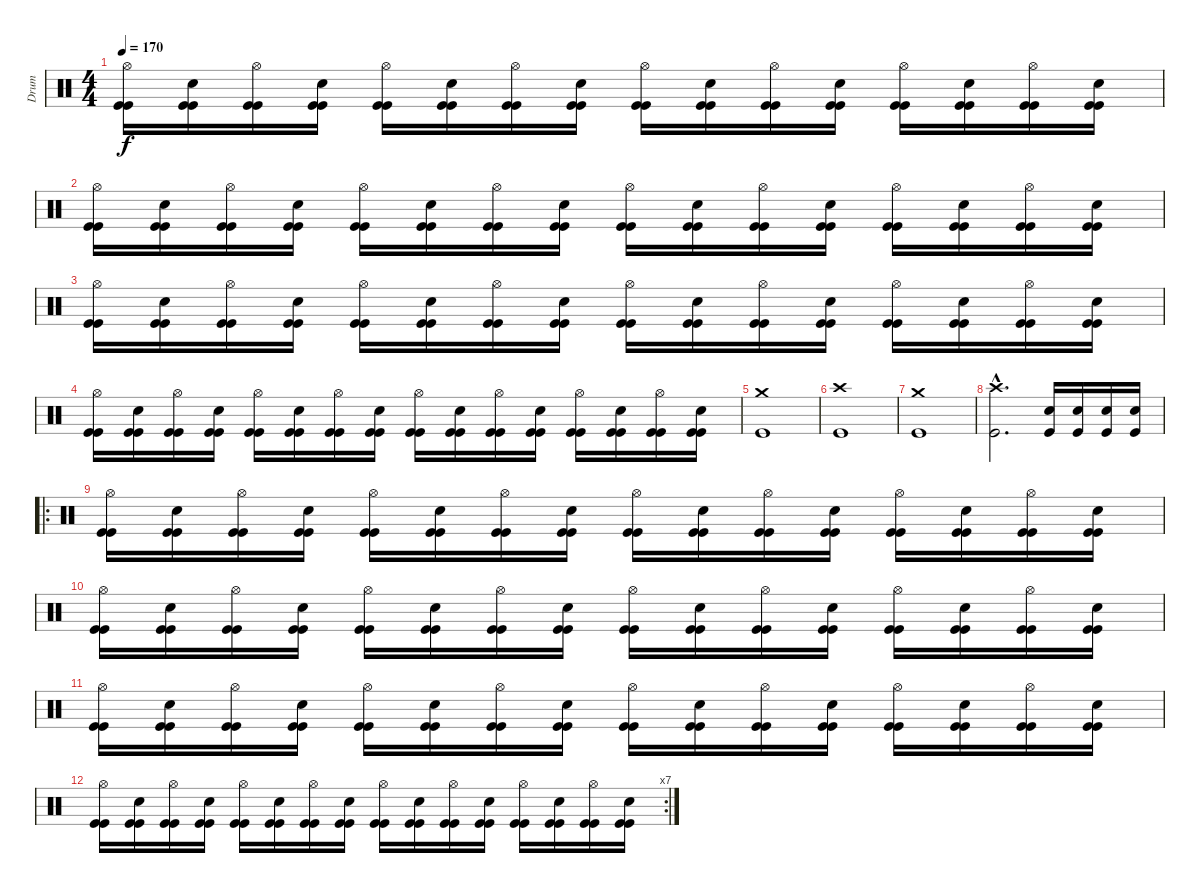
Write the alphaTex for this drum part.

\track ("Drum" "Drum") {instrument percussion}
\staff {score}
\articulation defaults
\ts (4 4)
\tempo 170
\clef neutral
\ks c
("Hi-Hat (open)" "Kick (hit)" "Kick (hit)").16{dy f} ("Snare (hit) 2" "Kick (hit)" "Kick (hit)").16 ("Hi-Hat (open)" "Kick (hit)" "Kick (hit)").16 ("Snare (hit) 2" "Kick (hit)" "Kick (hit)").16 ("Hi-Hat (open)" "Kick (hit)" "Kick (hit)").16 ("Snare (hit) 2" "Kick (hit)" "Kick (hit)").16 ("Hi-Hat (open)" "Kick (hit)" "Kick (hit)").16 ("Snare (hit) 2" "Kick (hit)" "Kick (hit)").16 ("Hi-Hat (open)" "Kick (hit)" "Kick (hit)").16 ("Snare (hit) 2" "Kick (hit)" "Kick (hit)").16 ("Hi-Hat (open)" "Kick (hit)" "Kick (hit)").16 ("Snare (hit) 2" "Kick (hit)" "Kick (hit)").16 ("Hi-Hat (open)" "Kick (hit)" "Kick (hit)").16 ("Snare (hit) 2" "Kick (hit)" "Kick (hit)").16 ("Hi-Hat (open)" "Kick (hit)" "Kick (hit)").16 ("Snare (hit) 2" "Kick (hit)" "Kick (hit)").16 |
("Hi-Hat (open)" "Kick (hit)" "Kick (hit)").16 ("Snare (hit) 2" "Kick (hit)" "Kick (hit)").16 ("Hi-Hat (open)" "Kick (hit)" "Kick (hit)").16 ("Snare (hit) 2" "Kick (hit)" "Kick (hit)").16 ("Hi-Hat (open)" "Kick (hit)" "Kick (hit)").16 ("Snare (hit) 2" "Kick (hit)" "Kick (hit)").16 ("Hi-Hat (open)" "Kick (hit)" "Kick (hit)").16 ("Snare (hit) 2" "Kick (hit)" "Kick (hit)").16 ("Hi-Hat (open)" "Kick (hit)" "Kick (hit)").16 ("Snare (hit) 2" "Kick (hit)" "Kick (hit)").16 ("Hi-Hat (open)" "Kick (hit)" "Kick (hit)").16 ("Snare (hit) 2" "Kick (hit)" "Kick (hit)").16 ("Hi-Hat (open)" "Kick (hit)" "Kick (hit)").16 ("Snare (hit) 2" "Kick (hit)" "Kick (hit)").16 ("Hi-Hat (open)" "Kick (hit)" "Kick (hit)").16 ("Snare (hit) 2" "Kick (hit)" "Kick (hit)").16 |
("Hi-Hat (open)" "Kick (hit)" "Kick (hit)").16 ("Snare (hit) 2" "Kick (hit)" "Kick (hit)").16 ("Hi-Hat (open)" "Kick (hit)" "Kick (hit)").16 ("Snare (hit) 2" "Kick (hit)" "Kick (hit)").16 ("Hi-Hat (open)" "Kick (hit)" "Kick (hit)").16 ("Snare (hit) 2" "Kick (hit)" "Kick (hit)").16 ("Hi-Hat (open)" "Kick (hit)" "Kick (hit)").16 ("Snare (hit) 2" "Kick (hit)" "Kick (hit)").16 ("Hi-Hat (open)" "Kick (hit)" "Kick (hit)").16 ("Snare (hit) 2" "Kick (hit)" "Kick (hit)").16 ("Hi-Hat (open)" "Kick (hit)" "Kick (hit)").16 ("Snare (hit) 2" "Kick (hit)" "Kick (hit)").16 ("Hi-Hat (open)" "Kick (hit)" "Kick (hit)").16 ("Snare (hit) 2" "Kick (hit)" "Kick (hit)").16 ("Hi-Hat (open)" "Kick (hit)" "Kick (hit)").16 ("Snare (hit) 2" "Kick (hit)" "Kick (hit)").16 |
("Hi-Hat (open)" "Kick (hit)" "Kick (hit)").16 ("Snare (hit) 2" "Kick (hit)" "Kick (hit)").16 ("Hi-Hat (open)" "Kick (hit)" "Kick (hit)").16 ("Snare (hit) 2" "Kick (hit)" "Kick (hit)").16 ("Hi-Hat (open)" "Kick (hit)" "Kick (hit)").16 ("Snare (hit) 2" "Kick (hit)" "Kick (hit)").16 ("Hi-Hat (open)" "Kick (hit)" "Kick (hit)").16 ("Snare (hit) 2" "Kick (hit)" "Kick (hit)").16 ("Hi-Hat (open)" "Kick (hit)" "Kick (hit)").16 ("Snare (hit) 2" "Kick (hit)" "Kick (hit)").16 ("Hi-Hat (open)" "Kick (hit)" "Kick (hit)").16 ("Snare (hit) 2" "Kick (hit)" "Kick (hit)").16 ("Hi-Hat (open)" "Kick (hit)" "Kick (hit)").16 ("Snare (hit) 2" "Kick (hit)" "Kick (hit)").16 ("Hi-Hat (open)" "Kick (hit)" "Kick (hit)").16 ("Snare (hit) 2" "Kick (hit)" "Kick (hit)").16 |
("Crash medium (hit)" "Kick (hit)").1 |
("Crash high (hit)" "Kick (hit)").1 |
("Crash medium (hit)" "Kick (hit)").1 |
("Crash high (hit)"{hac} "Kick (hit)"{hac}).2{d} ("Snare (hit) 2" "Kick (hit)").16 ("Snare (hit) 2" "Kick (hit)").16 ("Snare (hit) 2" "Kick (hit)").16 ("Snare (hit) 2" "Kick (hit)").16 |
\ro
("Hi-Hat (open)" "Kick (hit)" "Kick (hit)").16 ("Snare (hit) 2" "Kick (hit)" "Kick (hit)").16 ("Hi-Hat (open)" "Kick (hit)" "Kick (hit)").16 ("Snare (hit) 2" "Kick (hit)" "Kick (hit)").16 ("Hi-Hat (open)" "Kick (hit)" "Kick (hit)").16 ("Snare (hit) 2" "Kick (hit)" "Kick (hit)").16 ("Hi-Hat (open)" "Kick (hit)" "Kick (hit)").16 ("Snare (hit) 2" "Kick (hit)" "Kick (hit)").16 ("Hi-Hat (open)" "Kick (hit)" "Kick (hit)").16 ("Snare (hit) 2" "Kick (hit)" "Kick (hit)").16 ("Hi-Hat (open)" "Kick (hit)" "Kick (hit)").16 ("Snare (hit) 2" "Kick (hit)" "Kick (hit)").16 ("Hi-Hat (open)" "Kick (hit)" "Kick (hit)").16 ("Snare (hit) 2" "Kick (hit)" "Kick (hit)").16 ("Hi-Hat (open)" "Kick (hit)" "Kick (hit)").16 ("Snare (hit) 2" "Kick (hit)" "Kick (hit)").16 |
("Hi-Hat (open)" "Kick (hit)" "Kick (hit)").16 ("Snare (hit) 2" "Kick (hit)" "Kick (hit)").16 ("Hi-Hat (open)" "Kick (hit)" "Kick (hit)").16 ("Snare (hit) 2" "Kick (hit)" "Kick (hit)").16 ("Hi-Hat (open)" "Kick (hit)" "Kick (hit)").16 ("Snare (hit) 2" "Kick (hit)" "Kick (hit)").16 ("Hi-Hat (open)" "Kick (hit)" "Kick (hit)").16 ("Snare (hit) 2" "Kick (hit)" "Kick (hit)").16 ("Hi-Hat (open)" "Kick (hit)" "Kick (hit)").16 ("Snare (hit) 2" "Kick (hit)" "Kick (hit)").16 ("Hi-Hat (open)" "Kick (hit)" "Kick (hit)").16 ("Snare (hit) 2" "Kick (hit)" "Kick (hit)").16 ("Hi-Hat (open)" "Kick (hit)" "Kick (hit)").16 ("Snare (hit) 2" "Kick (hit)" "Kick (hit)").16 ("Hi-Hat (open)" "Kick (hit)" "Kick (hit)").16 ("Snare (hit) 2" "Kick (hit)" "Kick (hit)").16 |
("Hi-Hat (open)" "Kick (hit)" "Kick (hit)").16 ("Snare (hit) 2" "Kick (hit)" "Kick (hit)").16 ("Hi-Hat (open)" "Kick (hit)" "Kick (hit)").16 ("Snare (hit) 2" "Kick (hit)" "Kick (hit)").16 ("Hi-Hat (open)" "Kick (hit)" "Kick (hit)").16 ("Snare (hit) 2" "Kick (hit)" "Kick (hit)").16 ("Hi-Hat (open)" "Kick (hit)" "Kick (hit)").16 ("Snare (hit) 2" "Kick (hit)" "Kick (hit)").16 ("Hi-Hat (open)" "Kick (hit)" "Kick (hit)").16 ("Snare (hit) 2" "Kick (hit)" "Kick (hit)").16 ("Hi-Hat (open)" "Kick (hit)" "Kick (hit)").16 ("Snare (hit) 2" "Kick (hit)" "Kick (hit)").16 ("Hi-Hat (open)" "Kick (hit)" "Kick (hit)").16 ("Snare (hit) 2" "Kick (hit)" "Kick (hit)").16 ("Hi-Hat (open)" "Kick (hit)" "Kick (hit)").16 ("Snare (hit) 2" "Kick (hit)" "Kick (hit)").16 |
\rc 7
("Hi-Hat (open)" "Kick (hit)" "Kick (hit)").16 ("Snare (hit) 2" "Kick (hit)" "Kick (hit)").16 ("Hi-Hat (open)" "Kick (hit)" "Kick (hit)").16 ("Snare (hit) 2" "Kick (hit)" "Kick (hit)").16 ("Hi-Hat (open)" "Kick (hit)" "Kick (hit)").16 ("Snare (hit) 2" "Kick (hit)" "Kick (hit)").16 ("Hi-Hat (open)" "Kick (hit)" "Kick (hit)").16 ("Snare (hit) 2" "Kick (hit)" "Kick (hit)").16 ("Hi-Hat (open)" "Kick (hit)" "Kick (hit)").16 ("Snare (hit) 2" "Kick (hit)" "Kick (hit)").16 ("Hi-Hat (open)" "Kick (hit)" "Kick (hit)").16 ("Snare (hit) 2" "Kick (hit)" "Kick (hit)").16 ("Hi-Hat (open)" "Kick (hit)" "Kick (hit)").16 ("Snare (hit) 2" "Kick (hit)" "Kick (hit)").16 ("Hi-Hat (open)" "Kick (hit)" "Kick (hit)").16 ("Snare (hit) 2" "Kick (hit)" "Kick (hit)").16
